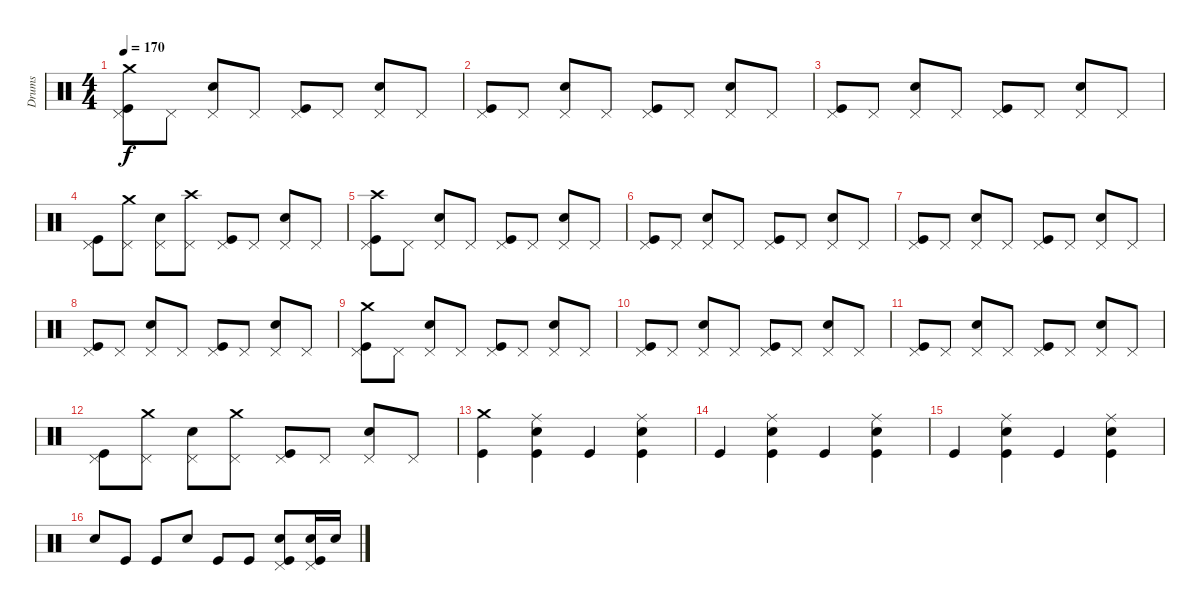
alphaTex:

\track ("Drums" "Drums") {instrument percussion}
\staff {score}
\articulation defaults
\ts (4 4)
\tempo 170
\clef neutral
\ks c
("Crash medium (hit)" "Pedal Hi-Hat (hit)" "Kick (hit)").8{dy f} "Pedal Hi-Hat (hit)".8 ("Pedal Hi-Hat (hit)" "Electric Snare (hit)").8 "Pedal Hi-Hat (hit)".8 ("Pedal Hi-Hat (hit)" "Kick (hit)").8 "Pedal Hi-Hat (hit)".8 ("Pedal Hi-Hat (hit)" "Electric Snare (hit)").8 "Pedal Hi-Hat (hit)".8 |
("Pedal Hi-Hat (hit)" "Kick (hit)").8 "Pedal Hi-Hat (hit)".8 ("Pedal Hi-Hat (hit)" "Electric Snare (hit)").8 "Pedal Hi-Hat (hit)".8 ("Pedal Hi-Hat (hit)" "Kick (hit)").8 "Pedal Hi-Hat (hit)".8 ("Pedal Hi-Hat (hit)" "Electric Snare (hit)").8 "Pedal Hi-Hat (hit)".8 |
("Pedal Hi-Hat (hit)" "Kick (hit)").8 "Pedal Hi-Hat (hit)".8 ("Pedal Hi-Hat (hit)" "Electric Snare (hit)").8 "Pedal Hi-Hat (hit)".8 ("Pedal Hi-Hat (hit)" "Kick (hit)").8 "Pedal Hi-Hat (hit)".8 ("Pedal Hi-Hat (hit)" "Electric Snare (hit)").8 "Pedal Hi-Hat (hit)".8 |
("Pedal Hi-Hat (hit)" "Kick (hit)").8 ("Crash medium (hit)" "Pedal Hi-Hat (hit)").8 ("Pedal Hi-Hat (hit)" "Electric Snare (hit)").8 ("Crash high (hit)" "Pedal Hi-Hat (hit)").8 ("Pedal Hi-Hat (hit)" "Kick (hit)").8 "Pedal Hi-Hat (hit)".8 ("Pedal Hi-Hat (hit)" "Electric Snare (hit)").8 "Pedal Hi-Hat (hit)".8 |
("Crash high (hit)" "Pedal Hi-Hat (hit)" "Kick (hit)").8 "Pedal Hi-Hat (hit)".8 ("Pedal Hi-Hat (hit)" "Electric Snare (hit)").8 "Pedal Hi-Hat (hit)".8 ("Pedal Hi-Hat (hit)" "Kick (hit)").8 "Pedal Hi-Hat (hit)".8 ("Pedal Hi-Hat (hit)" "Electric Snare (hit)").8 "Pedal Hi-Hat (hit)".8 |
("Pedal Hi-Hat (hit)" "Kick (hit)").8 "Pedal Hi-Hat (hit)".8 ("Pedal Hi-Hat (hit)" "Electric Snare (hit)").8 "Pedal Hi-Hat (hit)".8 ("Pedal Hi-Hat (hit)" "Kick (hit)").8 "Pedal Hi-Hat (hit)".8 ("Pedal Hi-Hat (hit)" "Electric Snare (hit)").8 "Pedal Hi-Hat (hit)".8 |
("Pedal Hi-Hat (hit)" "Kick (hit)").8 "Pedal Hi-Hat (hit)".8 ("Pedal Hi-Hat (hit)" "Electric Snare (hit)").8 "Pedal Hi-Hat (hit)".8 ("Pedal Hi-Hat (hit)" "Kick (hit)").8 "Pedal Hi-Hat (hit)".8 ("Pedal Hi-Hat (hit)" "Electric Snare (hit)").8 "Pedal Hi-Hat (hit)".8 |
("Pedal Hi-Hat (hit)" "Kick (hit)").8 "Pedal Hi-Hat (hit)".8 ("Pedal Hi-Hat (hit)" "Electric Snare (hit)").8 "Pedal Hi-Hat (hit)".8 ("Pedal Hi-Hat (hit)" "Kick (hit)").8 "Pedal Hi-Hat (hit)".8 ("Pedal Hi-Hat (hit)" "Electric Snare (hit)").8 "Pedal Hi-Hat (hit)".8 |
("Crash medium (hit)" "Pedal Hi-Hat (hit)" "Kick (hit)").8 "Pedal Hi-Hat (hit)".8 ("Pedal Hi-Hat (hit)" "Electric Snare (hit)").8 "Pedal Hi-Hat (hit)".8 ("Pedal Hi-Hat (hit)" "Kick (hit)").8 "Pedal Hi-Hat (hit)".8 ("Pedal Hi-Hat (hit)" "Electric Snare (hit)").8 "Pedal Hi-Hat (hit)".8 |
("Pedal Hi-Hat (hit)" "Kick (hit)").8 "Pedal Hi-Hat (hit)".8 ("Pedal Hi-Hat (hit)" "Electric Snare (hit)").8 "Pedal Hi-Hat (hit)".8 ("Pedal Hi-Hat (hit)" "Kick (hit)").8 "Pedal Hi-Hat (hit)".8 ("Pedal Hi-Hat (hit)" "Electric Snare (hit)").8 "Pedal Hi-Hat (hit)".8 |
("Pedal Hi-Hat (hit)" "Kick (hit)").8 "Pedal Hi-Hat (hit)".8 ("Pedal Hi-Hat (hit)" "Electric Snare (hit)").8 "Pedal Hi-Hat (hit)".8 ("Pedal Hi-Hat (hit)" "Kick (hit)").8 "Pedal Hi-Hat (hit)".8 ("Pedal Hi-Hat (hit)" "Electric Snare (hit)").8 "Pedal Hi-Hat (hit)".8 |
("Pedal Hi-Hat (hit)" "Kick (hit)").8 ("Crash medium (hit)" "Pedal Hi-Hat (hit)").8 ("Pedal Hi-Hat (hit)" "Electric Snare (hit)").8 ("Crash medium (hit)" "Pedal Hi-Hat (hit)").8 ("Pedal Hi-Hat (hit)" "Kick (hit)").8 "Pedal Hi-Hat (hit)".8 ("Pedal Hi-Hat (hit)" "Electric Snare (hit)").8 "Pedal Hi-Hat (hit)".8 |
("Crash medium (hit)" "Kick (hit)").4 ("Ride (middle)" "Kick (hit)" "Electric Snare (hit)").4 "Kick (hit)".4 ("Ride (middle)" "Kick (hit)" "Electric Snare (hit)").4 |
"Kick (hit)".4 ("Ride (middle)" "Kick (hit)" "Electric Snare (hit)").4 "Kick (hit)".4 ("Ride (middle)" "Kick (hit)" "Electric Snare (hit)").4 |
"Kick (hit)".4 ("Ride (middle)" "Kick (hit)" "Electric Snare (hit)").4 "Kick (hit)".4 ("Ride (middle)" "Kick (hit)" "Electric Snare (hit)").4 |
"Electric Snare (hit)".8 "Kick (hit)".8 "Kick (hit)".8 "Electric Snare (hit)".8 "Kick (hit)".8 "Kick (hit)".8 ("Pedal Hi-Hat (hit)" "Kick (hit)" "Electric Snare (hit)").8 ("Pedal Hi-Hat (hit)" "Kick (hit)" "Electric Snare (hit)").16 "Electric Snare (hit)".16
